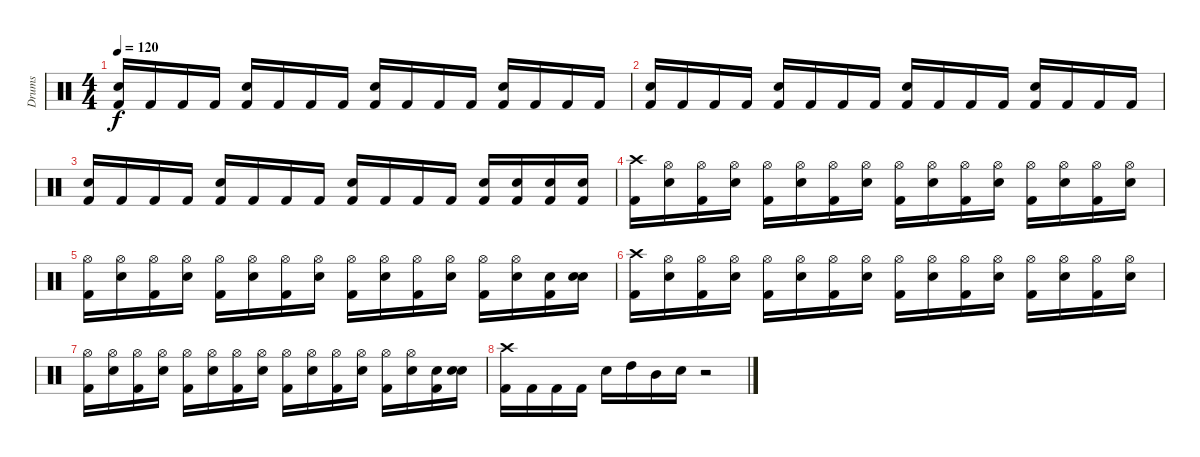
\track ("Drums" "Drums") {instrument percussion}
\staff {score}
\articulation defaults
\ts (4 4)
\tempo 120
\clef neutral
\ks c
("Snare (hit) 2" "Kick (hit) 2").16{dy f} "Kick (hit) 2".16 "Kick (hit) 2".16 "Kick (hit) 2".16 ("Snare (hit) 2" "Kick (hit) 2").16 "Kick (hit) 2".16 "Kick (hit) 2".16 "Kick (hit) 2".16 ("Snare (hit) 2" "Kick (hit) 2").16 "Kick (hit) 2".16 "Kick (hit) 2".16 "Kick (hit) 2".16 ("Snare (hit) 2" "Kick (hit) 2").16 "Kick (hit) 2".16 "Kick (hit) 2".16 "Kick (hit) 2".16 |
("Snare (hit) 2" "Kick (hit) 2").16 "Kick (hit) 2".16 "Kick (hit) 2".16 "Kick (hit) 2".16 ("Snare (hit) 2" "Kick (hit) 2").16 "Kick (hit) 2".16 "Kick (hit) 2".16 "Kick (hit) 2".16 ("Snare (hit) 2" "Kick (hit) 2").16 "Kick (hit) 2".16 "Kick (hit) 2".16 "Kick (hit) 2".16 ("Snare (hit) 2" "Kick (hit) 2").16 "Kick (hit) 2".16 "Kick (hit) 2".16 "Kick (hit) 2".16 |
("Snare (hit) 2" "Kick (hit) 2").16 "Kick (hit) 2".16 "Kick (hit) 2".16 "Kick (hit) 2".16 ("Snare (hit) 2" "Kick (hit) 2").16 "Kick (hit) 2".16 "Kick (hit) 2".16 "Kick (hit) 2".16 ("Snare (hit) 2" "Kick (hit) 2").16 "Kick (hit) 2".16 "Kick (hit) 2".16 "Kick (hit) 2".16 ("Snare (hit) 2" "Kick (hit) 2").16 ("Snare (hit) 2" "Kick (hit) 2").16 ("Snare (hit) 2" "Kick (hit) 2").16 ("Snare (hit) 2" "Kick (hit) 2").16 |
("Crash high (hit)" "Kick (hit) 2").16 ("Hi-Hat (open)" "Snare (hit) 2").16 ("Hi-Hat (open)" "Kick (hit) 2").16 ("Hi-Hat (open)" "Snare (hit) 2").16 ("Hi-Hat (open)" "Kick (hit) 2").16 ("Hi-Hat (open)" "Snare (hit) 2").16 ("Hi-Hat (open)" "Kick (hit) 2").16 ("Hi-Hat (open)" "Snare (hit) 2").16 ("Hi-Hat (open)" "Kick (hit) 2").16 ("Hi-Hat (open)" "Snare (hit) 2").16 ("Hi-Hat (open)" "Kick (hit) 2").16 ("Hi-Hat (open)" "Snare (hit) 2").16 ("Hi-Hat (open)" "Kick (hit) 2").16 ("Hi-Hat (open)" "Snare (hit) 2").16 ("Hi-Hat (open)" "Kick (hit) 2").16 ("Hi-Hat (open)" "Snare (hit) 2").16 |
("Hi-Hat (open)" "Kick (hit) 2").16 ("Hi-Hat (open)" "Snare (hit) 2").16 ("Hi-Hat (open)" "Kick (hit) 2").16 ("Hi-Hat (open)" "Snare (hit) 2").16 ("Hi-Hat (open)" "Kick (hit) 2").16 ("Hi-Hat (open)" "Snare (hit) 2").16 ("Hi-Hat (open)" "Kick (hit) 2").16 ("Hi-Hat (open)" "Snare (hit) 2").16 ("Hi-Hat (open)" "Kick (hit) 2").16 ("Hi-Hat (open)" "Snare (hit) 2").16 ("Hi-Hat (open)" "Kick (hit) 2").16 ("Hi-Hat (open)" "Snare (hit) 2").16 ("Hi-Hat (open)" "Kick (hit) 2").16 ("Hi-Hat (open)" "Snare (hit) 2").16 ("Snare (hit) 2" "Kick (hit) 2").16 ("Snare (hit) 2" "Snare (hit) 2").16 |
("Crash high (hit)" "Kick (hit) 2").16 ("Hi-Hat (open)" "Snare (hit) 2").16 ("Hi-Hat (open)" "Kick (hit) 2").16 ("Hi-Hat (open)" "Snare (hit) 2").16 ("Hi-Hat (open)" "Kick (hit) 2").16 ("Hi-Hat (open)" "Snare (hit) 2").16 ("Hi-Hat (open)" "Kick (hit) 2").16 ("Hi-Hat (open)" "Snare (hit) 2").16 ("Hi-Hat (open)" "Kick (hit) 2").16 ("Hi-Hat (open)" "Snare (hit) 2").16 ("Hi-Hat (open)" "Kick (hit) 2").16 ("Hi-Hat (open)" "Snare (hit) 2").16 ("Hi-Hat (open)" "Kick (hit) 2").16 ("Hi-Hat (open)" "Snare (hit) 2").16 ("Hi-Hat (open)" "Kick (hit) 2").16 ("Hi-Hat (open)" "Snare (hit) 2").16 |
("Hi-Hat (open)" "Kick (hit) 2").16 ("Hi-Hat (open)" "Snare (hit) 2").16 ("Hi-Hat (open)" "Kick (hit) 2").16 ("Hi-Hat (open)" "Snare (hit) 2").16 ("Hi-Hat (open)" "Kick (hit) 2").16 ("Hi-Hat (open)" "Snare (hit) 2").16 ("Hi-Hat (open)" "Kick (hit) 2").16 ("Hi-Hat (open)" "Snare (hit) 2").16 ("Hi-Hat (open)" "Kick (hit) 2").16 ("Hi-Hat (open)" "Snare (hit) 2").16 ("Hi-Hat (open)" "Kick (hit) 2").16 ("Hi-Hat (open)" "Snare (hit) 2").16 ("Hi-Hat (open)" "Kick (hit) 2").16 ("Hi-Hat (open)" "Snare (hit) 2").16 ("Snare (hit) 2" "Kick (hit) 2").16 ("Snare (hit) 2" "Snare (hit) 2").16 |
("Crash high (hit)" "Kick (hit) 2").16 "Kick (hit) 2".16 "Kick (hit) 2".16 "Kick (hit) 2".16 "Electric Snare (hit)".16 "High Tom (hit)".16 "Mid Tom (hit)".16 "Snare (hit) 2".16 r.2
